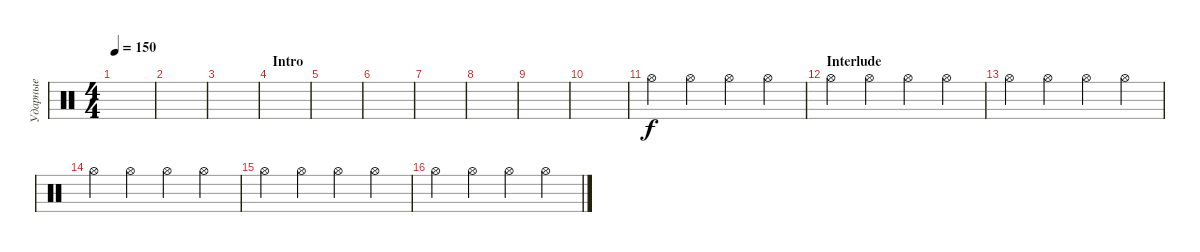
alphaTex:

\track ("Ударные" "Ударные") {instrument percussion}
\staff {score}
\articulation defaults
\ts (4 4)
\tempo 150
\clef neutral
\ks c
|
|
|
\section ("" "Intro")
|
|
|
|
|
|
|
"Hi-Hat (open)".4 "Hi-Hat (open)".4 "Hi-Hat (open)".4 "Hi-Hat (open)".4 |
\section ("" "Interlude")
"Hi-Hat (open)".4 "Hi-Hat (open)".4 "Hi-Hat (open)".4 "Hi-Hat (open)".4 |
"Hi-Hat (open)".4 "Hi-Hat (open)".4 "Hi-Hat (open)".4 "Hi-Hat (open)".4 |
"Hi-Hat (open)".4 "Hi-Hat (open)".4 "Hi-Hat (open)".4 "Hi-Hat (open)".4 |
"Hi-Hat (open)".4 "Hi-Hat (open)".4 "Hi-Hat (open)".4 "Hi-Hat (open)".4 |
"Hi-Hat (open)".4 "Hi-Hat (open)".4 "Hi-Hat (open)".4 "Hi-Hat (open)".4
